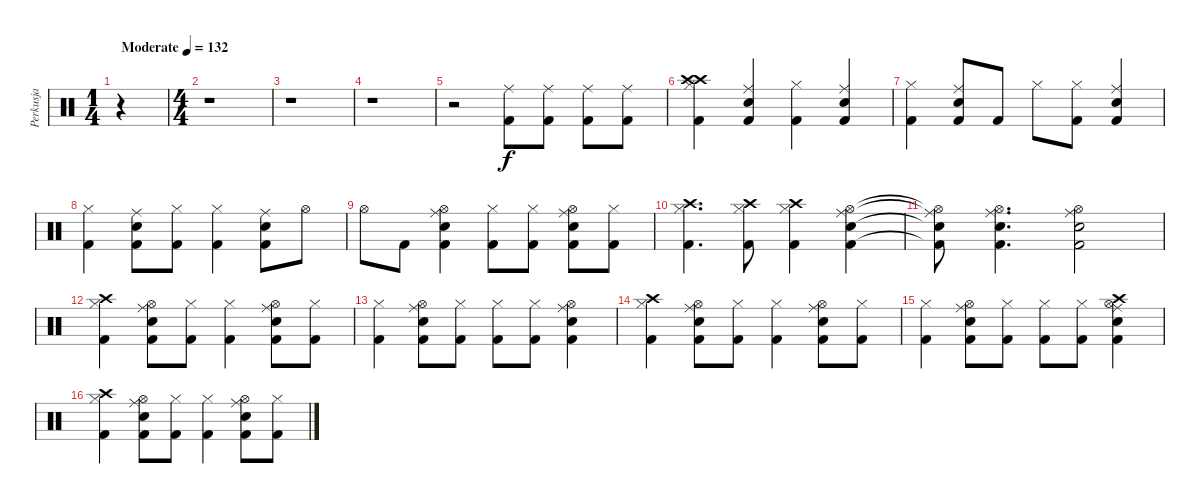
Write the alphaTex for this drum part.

\track ("Perkusja" "Perkusja") {instrument percussion}
\staff {score}
\articulation defaults
\ts (1 4)
\tempo (132 "Moderate")
\clef neutral
\ks c
r.4{dy f} |
\ts (4 4)
r.1 |
r.1 |
r.1 |
r.2 ("Kick (hit) 2" "Ride (middle)").8 ("Kick (hit) 2" "Ride (middle)").8 ("Kick (hit) 2" "Ride (middle)").8 ("Kick (hit) 2" "Ride (middle)").8 |
("Kick (hit) 2" "Hi-Hat (closed)" "Crash high (hit)" "Crash high (hit)").4 ("Electric Snare (hit)" "Kick (hit) 2" "Ride (middle)").4 ("Kick (hit) 2" "Hi-Hat (closed)").4 ("Electric Snare (hit)" "Kick (hit) 2" "Ride (middle)").4 |
("Kick (hit) 2" "Hi-Hat (closed)").4 ("Electric Snare (hit)" "Kick (hit) 2" "Ride (middle)").8 "Kick (hit) 2".8 "Hi-Hat (closed)".8 ("Hi-Hat (closed)" "Kick (hit) 2").8 ("Electric Snare (hit)" "Kick (hit) 2" "Ride (middle)").4 |
("Hi-Hat (closed)" "Kick (hit) 2").4 ("Electric Snare (hit)" "Kick (hit) 2" "Ride (middle)").8 ("Hi-Hat (closed)" "Kick (hit) 2").8 ("Hi-Hat (closed)" "Kick (hit) 2").4 ("Electric Snare (hit)" "Kick (hit) 2" "Ride (middle)").8 "Hi-Hat (open)".8 |
"Hi-Hat (open)".8 "Kick (hit) 2".8 ("Electric Snare (hit)" "Kick (hit) 2" "Ride (middle)" "Hi-Hat (open)").4 ("Hi-Hat (closed)" "Kick (hit) 2").8 ("Hi-Hat (closed)" "Kick (hit) 2").8 ("Electric Snare (hit)" "Kick (hit) 2" "Ride (middle)" "Hi-Hat (open)").8 ("Hi-Hat (closed)" "Kick (hit) 2").8 |
("Kick (hit) 2" "Hi-Hat (closed)" "Crash high (hit)").4{d} ("Kick (hit) 2" "Hi-Hat (closed)" "Crash high (hit)").8 ("Kick (hit) 2" "Hi-Hat (closed)" "Crash high (hit)").4 ("Electric Snare (hit)" "Kick (hit) 2" "Ride (middle)" "Hi-Hat (open)").4 |
("Electric Snare (hit)"{t} "Kick (hit) 2"{t} "Ride (middle)"{t} "Hi-Hat (open)"{t}).8 ("Electric Snare (hit)" "Kick (hit) 2" "Ride (middle)" "Hi-Hat (open)").4{d} ("Electric Snare (hit)" "Kick (hit) 2" "Ride (middle)" "Hi-Hat (open)").2 |
("Kick (hit) 2" "Hi-Hat (closed)" "Crash high (hit)").4 ("Electric Snare (hit)" "Kick (hit) 2" "Ride (middle)" "Hi-Hat (open)").8 ("Hi-Hat (closed)" "Kick (hit) 2").8 ("Hi-Hat (closed)" "Kick (hit) 2").4 ("Electric Snare (hit)" "Kick (hit) 2" "Ride (middle)" "Hi-Hat (open)").8 ("Hi-Hat (closed)" "Kick (hit) 2").8 |
("Hi-Hat (closed)" "Kick (hit) 2").4 ("Electric Snare (hit)" "Kick (hit) 2" "Ride (middle)" "Hi-Hat (open)").8 ("Hi-Hat (closed)" "Kick (hit) 2").8 ("Hi-Hat (closed)" "Kick (hit) 2").8 ("Hi-Hat (closed)" "Kick (hit) 2").8 ("Electric Snare (hit)" "Kick (hit) 2" "Ride (middle)" "Hi-Hat (open)").4 |
("Kick (hit) 2" "Hi-Hat (closed)" "Crash high (hit)").4 ("Electric Snare (hit)" "Kick (hit) 2" "Ride (middle)" "Hi-Hat (open)").8 ("Hi-Hat (closed)" "Kick (hit) 2").8 ("Hi-Hat (closed)" "Kick (hit) 2").4 ("Electric Snare (hit)" "Kick (hit) 2" "Ride (middle)" "Hi-Hat (open)").8 ("Hi-Hat (closed)" "Kick (hit) 2").8 |
("Hi-Hat (closed)" "Kick (hit) 2").4 ("Electric Snare (hit)" "Kick (hit) 2" "Ride (middle)" "Hi-Hat (open)").8 ("Hi-Hat (closed)" "Kick (hit) 2").8 ("Hi-Hat (closed)" "Kick (hit) 2").8 ("Hi-Hat (closed)" "Kick (hit) 2").8 ("Electric Snare (hit)" "Kick (hit) 2" "Ride (middle)" "Hi-Hat (open)" "Crash high (hit)").4 |
("Kick (hit) 2" "Hi-Hat (closed)" "Crash high (hit)").4 ("Electric Snare (hit)" "Kick (hit) 2" "Ride (middle)" "Hi-Hat (open)").8 ("Hi-Hat (closed)" "Kick (hit) 2").8 ("Hi-Hat (closed)" "Kick (hit) 2").4 ("Electric Snare (hit)" "Kick (hit) 2" "Ride (middle)" "Hi-Hat (open)").8 ("Hi-Hat (closed)" "Kick (hit) 2").8
